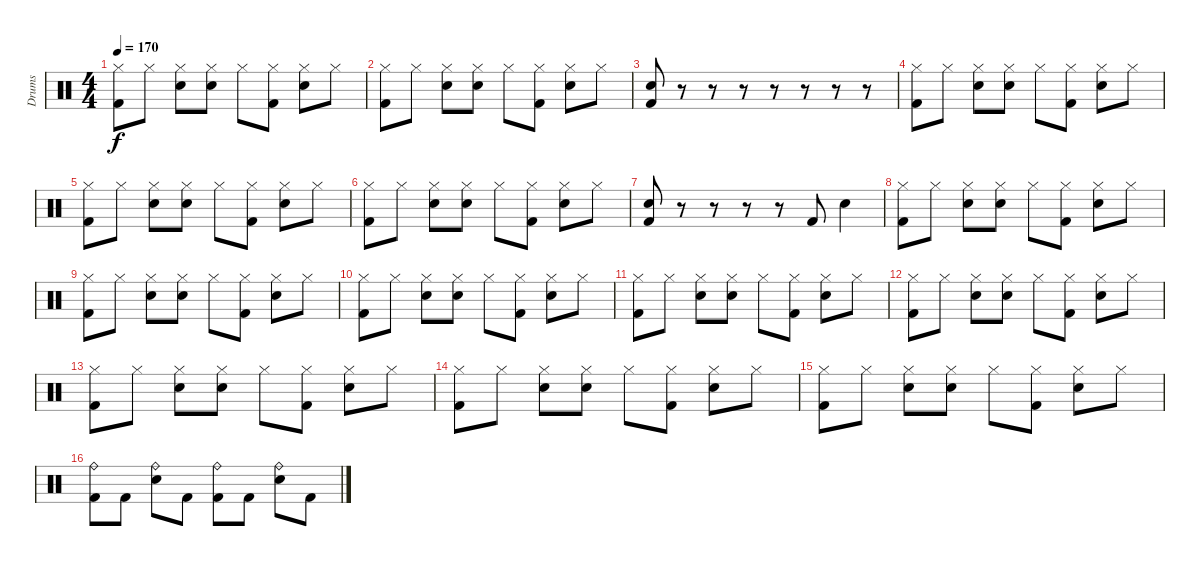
\track ("Drums" "Drums") {instrument percussion}
\staff {score}
\articulation defaults
\ts (4 4)
\tempo 170
\clef neutral
\ks c
("Hi-Hat (closed)" "Kick (hit) 2").8{dy f} "Hi-Hat (closed)".8 ("Hi-Hat (closed)" "Electric Snare (hit)").8 ("Hi-Hat (closed)" "Electric Snare (hit)").8 "Hi-Hat (closed)".8 ("Hi-Hat (closed)" "Kick (hit) 2").8 ("Hi-Hat (closed)" "Electric Snare (hit)").8 "Hi-Hat (closed)".8 |
("Hi-Hat (closed)" "Kick (hit) 2").8 "Hi-Hat (closed)".8 ("Hi-Hat (closed)" "Electric Snare (hit)").8 ("Hi-Hat (closed)" "Electric Snare (hit)").8 "Hi-Hat (closed)".8 ("Hi-Hat (closed)" "Kick (hit) 2").8 ("Hi-Hat (closed)" "Electric Snare (hit)").8 "Hi-Hat (closed)".8 |
("Electric Snare (hit)" "Kick (hit) 2").8 r.8 r.8 r.8 r.8 r.8 r.8 r.8 |
("Hi-Hat (closed)" "Kick (hit) 2").8 "Hi-Hat (closed)".8 ("Hi-Hat (closed)" "Electric Snare (hit)").8 ("Hi-Hat (closed)" "Electric Snare (hit)").8 "Hi-Hat (closed)".8 ("Hi-Hat (closed)" "Kick (hit) 2").8 ("Hi-Hat (closed)" "Electric Snare (hit)").8 "Hi-Hat (closed)".8 |
("Hi-Hat (closed)" "Kick (hit) 2").8 "Hi-Hat (closed)".8 ("Hi-Hat (closed)" "Electric Snare (hit)").8 ("Hi-Hat (closed)" "Electric Snare (hit)").8 "Hi-Hat (closed)".8 ("Hi-Hat (closed)" "Kick (hit) 2").8 ("Hi-Hat (closed)" "Electric Snare (hit)").8 "Hi-Hat (closed)".8 |
("Hi-Hat (closed)" "Kick (hit) 2").8 "Hi-Hat (closed)".8 ("Hi-Hat (closed)" "Electric Snare (hit)").8 ("Hi-Hat (closed)" "Electric Snare (hit)").8 "Hi-Hat (closed)".8 ("Hi-Hat (closed)" "Kick (hit) 2").8 ("Hi-Hat (closed)" "Electric Snare (hit)").8 "Hi-Hat (closed)".8 |
("Electric Snare (hit)" "Kick (hit) 2").8 r.8 r.8 r.8 r.8 "Kick (hit) 2".8 "Electric Snare (hit)".4 |
("Hi-Hat (closed)" "Kick (hit) 2").8 "Hi-Hat (closed)".8 ("Hi-Hat (closed)" "Electric Snare (hit)").8 ("Hi-Hat (closed)" "Electric Snare (hit)").8 "Hi-Hat (closed)".8 ("Hi-Hat (closed)" "Kick (hit) 2").8 ("Hi-Hat (closed)" "Electric Snare (hit)").8 "Hi-Hat (closed)".8 |
("Hi-Hat (closed)" "Kick (hit) 2").8 "Hi-Hat (closed)".8 ("Hi-Hat (closed)" "Electric Snare (hit)").8 ("Hi-Hat (closed)" "Electric Snare (hit)").8 "Hi-Hat (closed)".8 ("Hi-Hat (closed)" "Kick (hit) 2").8 ("Hi-Hat (closed)" "Electric Snare (hit)").8 "Hi-Hat (closed)".8 |
("Hi-Hat (closed)" "Kick (hit) 2").8 "Hi-Hat (closed)".8 ("Hi-Hat (closed)" "Electric Snare (hit)").8 ("Hi-Hat (closed)" "Electric Snare (hit)").8 "Hi-Hat (closed)".8 ("Hi-Hat (closed)" "Kick (hit) 2").8 ("Hi-Hat (closed)" "Electric Snare (hit)").8 "Hi-Hat (closed)".8 |
("Hi-Hat (closed)" "Kick (hit) 2").8 "Hi-Hat (closed)".8 ("Hi-Hat (closed)" "Electric Snare (hit)").8 ("Hi-Hat (closed)" "Electric Snare (hit)").8 "Hi-Hat (closed)".8 ("Hi-Hat (closed)" "Kick (hit) 2").8 ("Hi-Hat (closed)" "Electric Snare (hit)").8 "Hi-Hat (closed)".8 |
("Hi-Hat (closed)" "Kick (hit) 2").8 "Hi-Hat (closed)".8 ("Hi-Hat (closed)" "Electric Snare (hit)").8 ("Hi-Hat (closed)" "Electric Snare (hit)").8 "Hi-Hat (closed)".8 ("Hi-Hat (closed)" "Kick (hit) 2").8 ("Hi-Hat (closed)" "Electric Snare (hit)").8 "Hi-Hat (closed)".8 |
("Hi-Hat (closed)" "Kick (hit) 2").8 "Hi-Hat (closed)".8 ("Hi-Hat (closed)" "Electric Snare (hit)").8 ("Hi-Hat (closed)" "Electric Snare (hit)").8 "Hi-Hat (closed)".8 ("Hi-Hat (closed)" "Kick (hit) 2").8 ("Hi-Hat (closed)" "Electric Snare (hit)").8 "Hi-Hat (closed)".8 |
("Hi-Hat (closed)" "Kick (hit) 2").8 "Hi-Hat (closed)".8 ("Hi-Hat (closed)" "Electric Snare (hit)").8 ("Hi-Hat (closed)" "Electric Snare (hit)").8 "Hi-Hat (closed)".8 ("Hi-Hat (closed)" "Kick (hit) 2").8 ("Hi-Hat (closed)" "Electric Snare (hit)").8 "Hi-Hat (closed)".8 |
("Hi-Hat (closed)" "Kick (hit) 2").8 "Hi-Hat (closed)".8 ("Hi-Hat (closed)" "Electric Snare (hit)").8 ("Hi-Hat (closed)" "Electric Snare (hit)").8 "Hi-Hat (closed)".8 ("Hi-Hat (closed)" "Kick (hit) 2").8 ("Hi-Hat (closed)" "Electric Snare (hit)").8 "Hi-Hat (closed)".8 |
("Ride (bell)" "Kick (hit) 2").8 "Kick (hit) 2".8 ("Ride (bell)" "Electric Snare (hit)").8 "Kick (hit) 2".8 ("Ride (bell)" "Kick (hit) 2").8 "Kick (hit) 2".8 ("Ride (bell)" "Electric Snare (hit)").8 "Kick (hit) 2".8
